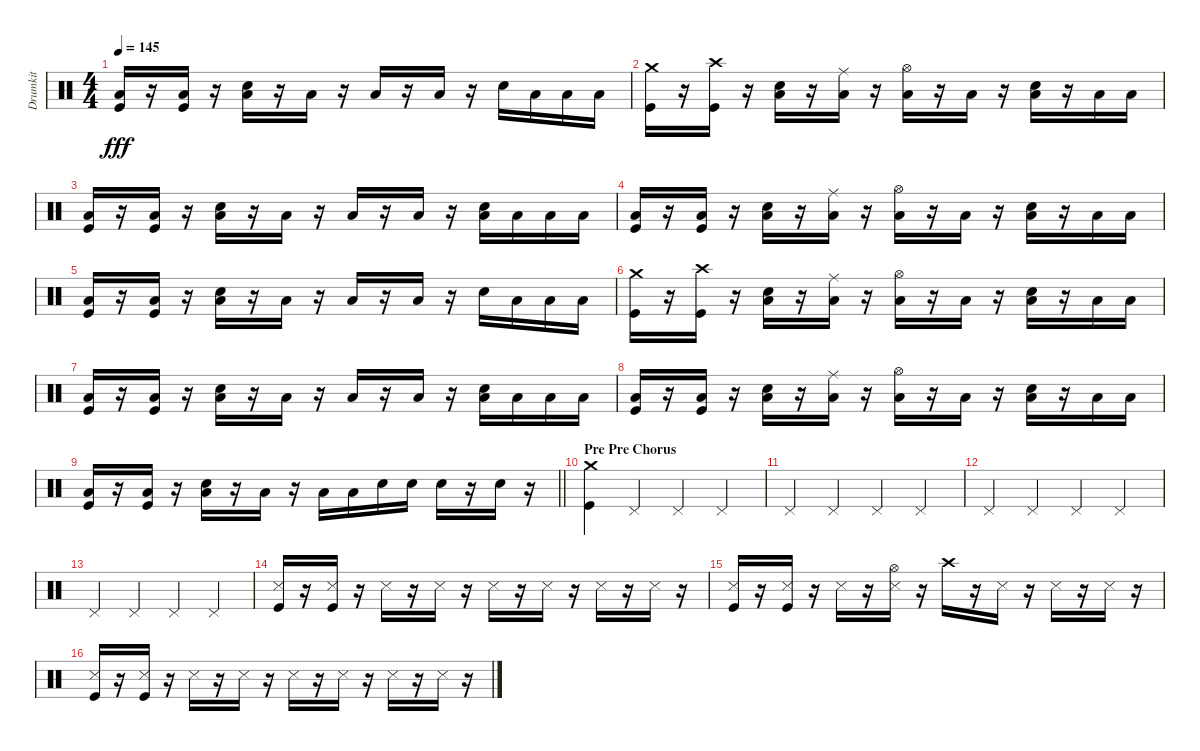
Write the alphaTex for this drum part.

\track ("Drumkit" "Drumkit") {instrument percussion}
\staff {score}
\articulation defaults
\ts (4 4)
\tempo 145
\clef neutral
\ks c
("Low Floor Tom (hit)" "Kick (hit)").16{dy fff} r.16 ("Low Floor Tom (hit)" "Kick (hit)").16 r.16 ("Snare (hit) 2" "Low Floor Tom (hit)").16 r.16 "Low Floor Tom (hit)".16 r.16 "Low Floor Tom (hit)".16 r.16 "Low Floor Tom (hit)".16 r.16 "Snare (hit) 2".16 "Low Tom (hit)".16 "Low Floor Tom (hit)".16 "Low Floor Tom (hit)".16 |
("Crash medium (hit)" "Kick (hit)").16 r.16 ("Crash high (hit)" "Kick (hit)").16 r.16 ("Low Floor Tom (hit)" "Snare (hit) 2").16 r.16 ("Ride (middle)" "Low Floor Tom (hit)").16 r.16 ("Hi-Hat (open)" "Low Floor Tom (hit)").16 r.16 "Low Floor Tom (hit)".16 r.16 ("Snare (hit) 2" "Low Floor Tom (hit)").16 r.16 "Low Floor Tom (hit)".16 "Low Floor Tom (hit)".16 |
("Low Floor Tom (hit)" "Kick (hit)").16 r.16 ("Low Floor Tom (hit)" "Kick (hit)").16 r.16 ("Snare (hit) 2" "Low Floor Tom (hit)").16 r.16 "Low Floor Tom (hit)".16 r.16 "Low Floor Tom (hit)".16 r.16 "Low Floor Tom (hit)".16 r.16 ("Snare (hit) 2" "Low Floor Tom (hit)").16 "Low Tom (hit)".16 "Low Floor Tom (hit)".16 "Low Floor Tom (hit)".16 |
("Low Floor Tom (hit)" "Kick (hit)").16 r.16 ("Low Floor Tom (hit)" "Kick (hit)").16 r.16 ("Snare (hit) 2" "Low Floor Tom (hit)").16 r.16 ("Ride (middle)" "Low Floor Tom (hit)").16 r.16 ("Hi-Hat (open)" "Low Floor Tom (hit)").16 r.16 "Low Floor Tom (hit)".16 r.16 ("Snare (hit) 2" "Low Floor Tom (hit)").16 r.16 "Low Floor Tom (hit)".16 "Low Floor Tom (hit)".16 |
("Low Floor Tom (hit)" "Kick (hit)").16 r.16 ("Low Floor Tom (hit)" "Kick (hit)").16 r.16 ("Snare (hit) 2" "Low Floor Tom (hit)").16 r.16 "Low Floor Tom (hit)".16 r.16 "Low Floor Tom (hit)".16 r.16 "Low Floor Tom (hit)".16 r.16 "Snare (hit) 2".16 "Low Tom (hit)".16 "Low Floor Tom (hit)".16 "Low Floor Tom (hit)".16 |
("Crash medium (hit)" "Kick (hit)").16 r.16 ("Crash high (hit)" "Kick (hit)").16 r.16 ("Low Floor Tom (hit)" "Snare (hit) 2").16 r.16 ("Ride (middle)" "Low Floor Tom (hit)").16 r.16 ("Hi-Hat (open)" "Low Floor Tom (hit)").16 r.16 "Low Floor Tom (hit)".16 r.16 ("Snare (hit) 2" "Low Floor Tom (hit)").16 r.16 "Low Floor Tom (hit)".16 "Low Floor Tom (hit)".16 |
("Low Floor Tom (hit)" "Kick (hit)").16 r.16 ("Low Floor Tom (hit)" "Kick (hit)").16 r.16 ("Snare (hit) 2" "Low Floor Tom (hit)").16 r.16 "Low Floor Tom (hit)".16 r.16 "Low Floor Tom (hit)".16 r.16 "Low Floor Tom (hit)".16 r.16 ("Snare (hit) 2" "Low Floor Tom (hit)").16 "Low Tom (hit)".16 "Low Floor Tom (hit)".16 "Low Floor Tom (hit)".16 |
("Low Floor Tom (hit)" "Kick (hit)").16 r.16 ("Low Floor Tom (hit)" "Kick (hit)").16 r.16 ("Snare (hit) 2" "Low Floor Tom (hit)").16 r.16 ("Ride (middle)" "Low Floor Tom (hit)").16 r.16 ("Hi-Hat (open)" "Low Floor Tom (hit)").16 r.16 "Low Floor Tom (hit)".16 r.16 ("Snare (hit) 2" "Low Floor Tom (hit)").16 r.16 "Low Floor Tom (hit)".16 "Low Floor Tom (hit)".16 |
\barLineRight lightlight
("Low Floor Tom (hit)" "Kick (hit)").16 r.16 ("Low Floor Tom (hit)" "Kick (hit)").16 r.16 ("Snare (hit) 2" "Low Floor Tom (hit)").16 r.16 "Low Floor Tom (hit)".16 r.16 "Low Floor Tom (hit)".16 "Low Tom (hit)".16 "Snare (hit) 2".16 "Snare (hit) 2".16 "Snare (hit) 2".16 r.16 "Snare (hit) 2".16 r.16 |
\section ("" "Pre Pre Chorus")
("Crash medium (hit)" "Kick (hit)").4 "Pedal Hi-Hat (hit)".4 "Pedal Hi-Hat (hit)".4 "Pedal Hi-Hat (hit)".4 |
"Pedal Hi-Hat (hit)".4 "Pedal Hi-Hat (hit)".4 "Pedal Hi-Hat (hit)".4 "Pedal Hi-Hat (hit)".4 |
"Pedal Hi-Hat (hit)".4 "Pedal Hi-Hat (hit)".4 "Pedal Hi-Hat (hit)".4 "Pedal Hi-Hat (hit)".4 |
"Pedal Hi-Hat (hit)".4 "Pedal Hi-Hat (hit)".4 "Pedal Hi-Hat (hit)".4 "Pedal Hi-Hat (hit)".4 |
("Snare (side stick) 3" "Kick (hit)").16 r.16 ("Snare (side stick) 3" "Kick (hit)").16 r.16 "Snare (side stick) 3".16 r.16 "Snare (side stick) 3".16 r.16 "Snare (side stick) 3".16 r.16 "Snare (side stick) 3".16 r.16 "Snare (side stick) 3".16 r.16 "Snare (side stick) 3".16 r.16 |
("Snare (side stick) 3" "Kick (hit)").16 r.16 ("Snare (side stick) 3" "Kick (hit)").16 r.16 "Snare (side stick) 3".16 r.16 ("Hi-Hat (open)" "Snare (side stick) 3").16 r.16 "Crash high (hit)".16 r.16 "Snare (side stick) 3".16 r.16 "Snare (side stick) 3".16 r.16 "Snare (side stick) 3".16 r.16 |
("Snare (side stick) 3" "Kick (hit)").16 r.16 ("Snare (side stick) 3" "Kick (hit)").16 r.16 "Snare (side stick) 3".16 r.16 "Snare (side stick) 3".16 r.16 "Snare (side stick) 3".16 r.16 "Snare (side stick) 3".16 r.16 "Snare (side stick) 3".16 r.16 "Snare (side stick) 3".16 r.16
